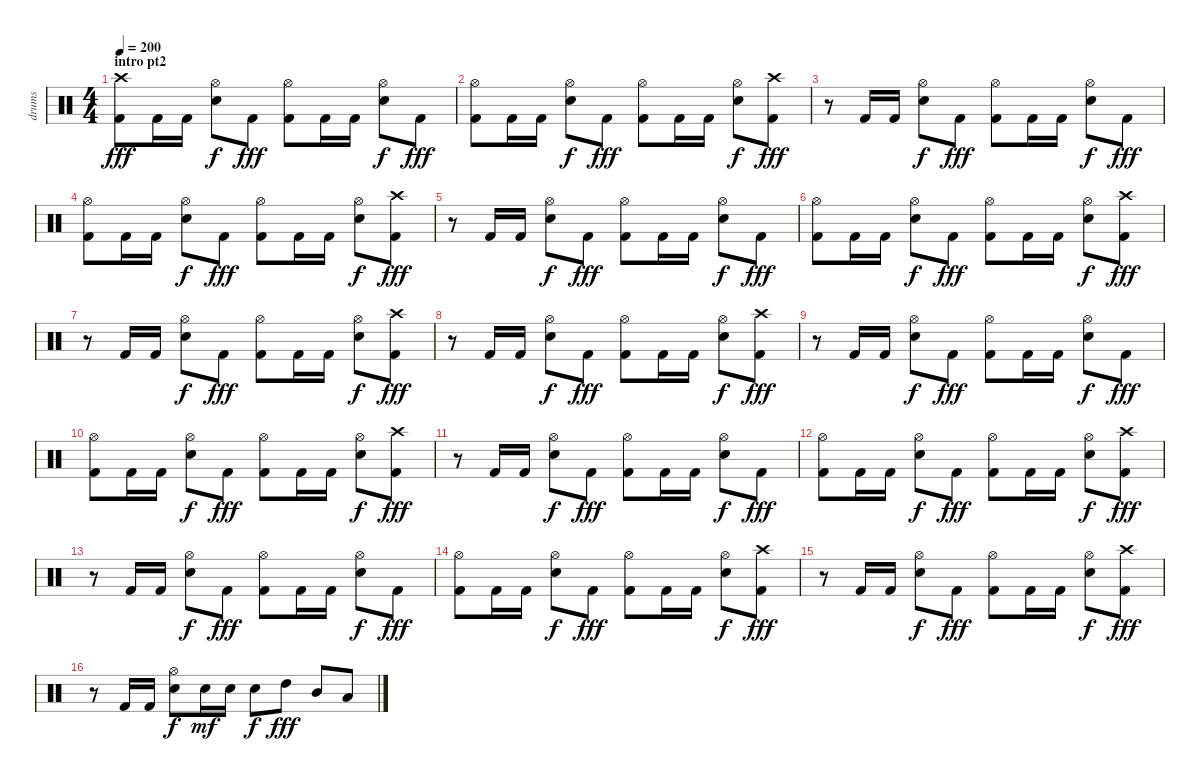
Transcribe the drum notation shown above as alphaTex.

\track ("drums" "drums") {instrument percussion}
\staff {score}
\articulation defaults
\ts (4 4)
\section ("" "intro pt2")
\tempo 200
\clef neutral
\ks c
("Crash high (hit)" "Kick (hit) 2").8{dy fff} "Kick (hit) 2".16 "Kick (hit) 2".16 ("Hi-Hat (open)" "Snare (hit) 2").8{dy f} "Kick (hit) 2".8{dy fff} ("Hi-Hat (open)" "Kick (hit) 2").8 "Kick (hit) 2".16 "Kick (hit) 2".16 ("Hi-Hat (open)" "Snare (hit) 2").8{dy f} "Kick (hit) 2".8{dy fff} |
("Hi-Hat (open)" "Kick (hit) 2").8 "Kick (hit) 2".16 "Kick (hit) 2".16 ("Hi-Hat (open)" "Snare (hit) 2").8{dy f} "Kick (hit) 2".8{dy fff} ("Hi-Hat (open)" "Kick (hit) 2").8 "Kick (hit) 2".16 "Kick (hit) 2".16 ("Hi-Hat (open)" "Snare (hit) 2").8{dy f} ("Crash high (hit)" "Kick (hit) 2").8{dy fff} |
r.8 "Kick (hit) 2".16 "Kick (hit) 2".16 ("Hi-Hat (open)" "Snare (hit) 2").8{dy f} "Kick (hit) 2".8{dy fff} ("Hi-Hat (open)" "Kick (hit) 2").8 "Kick (hit) 2".16 "Kick (hit) 2".16 ("Hi-Hat (open)" "Snare (hit) 2").8{dy f} "Kick (hit) 2".8{dy fff} |
("Hi-Hat (open)" "Kick (hit) 2").8 "Kick (hit) 2".16 "Kick (hit) 2".16 ("Hi-Hat (open)" "Snare (hit) 2").8{dy f} "Kick (hit) 2".8{dy fff} ("Hi-Hat (open)" "Kick (hit) 2").8 "Kick (hit) 2".16 "Kick (hit) 2".16 ("Hi-Hat (open)" "Snare (hit) 2").8{dy f} ("Crash high (hit)" "Kick (hit) 2").8{dy fff} |
r.8 "Kick (hit) 2".16 "Kick (hit) 2".16 ("Hi-Hat (open)" "Snare (hit) 2").8{dy f} "Kick (hit) 2".8{dy fff} ("Hi-Hat (open)" "Kick (hit) 2").8 "Kick (hit) 2".16 "Kick (hit) 2".16 ("Hi-Hat (open)" "Snare (hit) 2").8{dy f} "Kick (hit) 2".8{dy fff} |
("Hi-Hat (open)" "Kick (hit) 2").8 "Kick (hit) 2".16 "Kick (hit) 2".16 ("Hi-Hat (open)" "Snare (hit) 2").8{dy f} "Kick (hit) 2".8{dy fff} ("Hi-Hat (open)" "Kick (hit) 2").8 "Kick (hit) 2".16 "Kick (hit) 2".16 ("Hi-Hat (open)" "Snare (hit) 2").8{dy f} ("Crash high (hit)" "Kick (hit) 2").8{dy fff} |
r.8 "Kick (hit) 2".16 "Kick (hit) 2".16 ("Hi-Hat (open)" "Snare (hit) 2").8{dy f} "Kick (hit) 2".8{dy fff} ("Hi-Hat (open)" "Kick (hit) 2").8 "Kick (hit) 2".16 "Kick (hit) 2".16 ("Hi-Hat (open)" "Snare (hit) 2").8{dy f} ("Crash high (hit)" "Kick (hit) 2").8{dy fff} |
r.8 "Kick (hit) 2".16 "Kick (hit) 2".16 ("Hi-Hat (open)" "Snare (hit) 2").8{dy f} "Kick (hit) 2".8{dy fff} ("Hi-Hat (open)" "Kick (hit) 2").8 "Kick (hit) 2".16 "Kick (hit) 2".16 ("Hi-Hat (open)" "Snare (hit) 2").8{dy f} ("Crash high (hit)" "Kick (hit) 2").8{dy fff} |
r.8 "Kick (hit) 2".16 "Kick (hit) 2".16 ("Hi-Hat (open)" "Snare (hit) 2").8{dy f} "Kick (hit) 2".8{dy fff} ("Hi-Hat (open)" "Kick (hit) 2").8 "Kick (hit) 2".16 "Kick (hit) 2".16 ("Hi-Hat (open)" "Snare (hit) 2").8{dy f} "Kick (hit) 2".8{dy fff} |
("Hi-Hat (open)" "Kick (hit) 2").8 "Kick (hit) 2".16 "Kick (hit) 2".16 ("Hi-Hat (open)" "Snare (hit) 2").8{dy f} "Kick (hit) 2".8{dy fff} ("Hi-Hat (open)" "Kick (hit) 2").8 "Kick (hit) 2".16 "Kick (hit) 2".16 ("Hi-Hat (open)" "Snare (hit) 2").8{dy f} ("Crash high (hit)" "Kick (hit) 2").8{dy fff} |
r.8 "Kick (hit) 2".16 "Kick (hit) 2".16 ("Hi-Hat (open)" "Snare (hit) 2").8{dy f} "Kick (hit) 2".8{dy fff} ("Hi-Hat (open)" "Kick (hit) 2").8 "Kick (hit) 2".16 "Kick (hit) 2".16 ("Hi-Hat (open)" "Snare (hit) 2").8{dy f} "Kick (hit) 2".8{dy fff} |
("Hi-Hat (open)" "Kick (hit) 2").8 "Kick (hit) 2".16 "Kick (hit) 2".16 ("Hi-Hat (open)" "Snare (hit) 2").8{dy f} "Kick (hit) 2".8{dy fff} ("Hi-Hat (open)" "Kick (hit) 2").8 "Kick (hit) 2".16 "Kick (hit) 2".16 ("Hi-Hat (open)" "Snare (hit) 2").8{dy f} ("Crash high (hit)" "Kick (hit) 2").8{dy fff} |
r.8 "Kick (hit) 2".16 "Kick (hit) 2".16 ("Hi-Hat (open)" "Snare (hit) 2").8{dy f} "Kick (hit) 2".8{dy fff} ("Hi-Hat (open)" "Kick (hit) 2").8 "Kick (hit) 2".16 "Kick (hit) 2".16 ("Hi-Hat (open)" "Snare (hit) 2").8{dy f} "Kick (hit) 2".8{dy fff} |
("Hi-Hat (open)" "Kick (hit) 2").8 "Kick (hit) 2".16 "Kick (hit) 2".16 ("Hi-Hat (open)" "Snare (hit) 2").8{dy f} "Kick (hit) 2".8{dy fff} ("Hi-Hat (open)" "Kick (hit) 2").8 "Kick (hit) 2".16 "Kick (hit) 2".16 ("Hi-Hat (open)" "Snare (hit) 2").8{dy f} ("Crash high (hit)" "Kick (hit) 2").8{dy fff} |
r.8 "Kick (hit) 2".16 "Kick (hit) 2".16 ("Hi-Hat (open)" "Snare (hit) 2").8{dy f} "Kick (hit) 2".8{dy fff} ("Hi-Hat (open)" "Kick (hit) 2").8 "Kick (hit) 2".16 "Kick (hit) 2".16 ("Hi-Hat (open)" "Snare (hit) 2").8{dy f} ("Crash high (hit)" "Kick (hit) 2").8{dy fff} |
r.8 "Kick (hit) 2".16 "Kick (hit) 2".16 ("Hi-Hat (open)" "Snare (hit) 2").8{dy f} "Snare (hit) 2".16{dy mf} "Snare (hit) 2".16 "Snare (hit) 2".8{dy f} "High Tom (hit)".8{dy fff} "Mid Tom (hit)".8 "Low Tom (hit)".8
